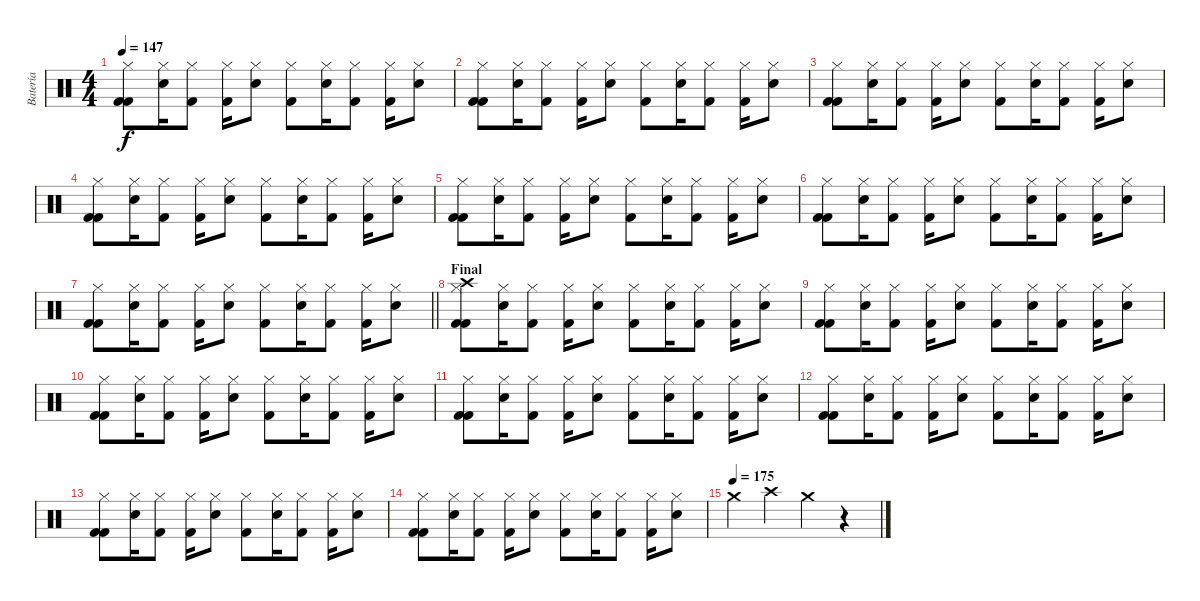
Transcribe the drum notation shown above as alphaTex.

\track ("Batería" "Batería") {instrument percussion}
\staff {score}
\articulation defaults
\ts (4 4)
\tempo 147
\clef neutral
\ks c
("Hi-Hat (closed)" "Kick (hit) 2" "Kick (hit) 2").8{dy f} ("Hi-Hat (closed)" "Electric Snare (hit)").16 ("Hi-Hat (closed)" "Kick (hit) 2").8 ("Hi-Hat (closed)" "Kick (hit) 2").16 ("Hi-Hat (closed)" "Electric Snare (hit)").8 ("Hi-Hat (closed)" "Kick (hit) 2").8 ("Hi-Hat (closed)" "Electric Snare (hit)").16 ("Hi-Hat (closed)" "Kick (hit) 2").8 ("Hi-Hat (closed)" "Kick (hit) 2").16 ("Hi-Hat (closed)" "Electric Snare (hit)").8 |
("Hi-Hat (closed)" "Kick (hit) 2" "Kick (hit) 2").8 ("Hi-Hat (closed)" "Electric Snare (hit)").16 ("Hi-Hat (closed)" "Kick (hit) 2").8 ("Hi-Hat (closed)" "Kick (hit) 2").16 ("Hi-Hat (closed)" "Electric Snare (hit)").8 ("Hi-Hat (closed)" "Kick (hit) 2").8 ("Hi-Hat (closed)" "Electric Snare (hit)").16 ("Hi-Hat (closed)" "Kick (hit) 2").8 ("Hi-Hat (closed)" "Kick (hit) 2").16 ("Hi-Hat (closed)" "Electric Snare (hit)").8 |
("Hi-Hat (closed)" "Kick (hit) 2" "Kick (hit) 2").8 ("Hi-Hat (closed)" "Electric Snare (hit)").16 ("Hi-Hat (closed)" "Kick (hit) 2").8 ("Hi-Hat (closed)" "Kick (hit) 2").16 ("Hi-Hat (closed)" "Electric Snare (hit)").8 ("Hi-Hat (closed)" "Kick (hit) 2").8 ("Hi-Hat (closed)" "Electric Snare (hit)").16 ("Hi-Hat (closed)" "Kick (hit) 2").8 ("Hi-Hat (closed)" "Kick (hit) 2").16 ("Hi-Hat (closed)" "Electric Snare (hit)").8 |
("Hi-Hat (closed)" "Kick (hit) 2" "Kick (hit) 2").8 ("Hi-Hat (closed)" "Electric Snare (hit)").16 ("Hi-Hat (closed)" "Kick (hit) 2").8 ("Hi-Hat (closed)" "Kick (hit) 2").16 ("Hi-Hat (closed)" "Electric Snare (hit)").8 ("Hi-Hat (closed)" "Kick (hit) 2").8 ("Hi-Hat (closed)" "Electric Snare (hit)").16 ("Hi-Hat (closed)" "Kick (hit) 2").8 ("Hi-Hat (closed)" "Kick (hit) 2").16 ("Hi-Hat (closed)" "Electric Snare (hit)").8 |
("Hi-Hat (closed)" "Kick (hit) 2" "Kick (hit) 2").8 ("Hi-Hat (closed)" "Electric Snare (hit)").16 ("Hi-Hat (closed)" "Kick (hit) 2").8 ("Hi-Hat (closed)" "Kick (hit) 2").16 ("Hi-Hat (closed)" "Electric Snare (hit)").8 ("Hi-Hat (closed)" "Kick (hit) 2").8 ("Hi-Hat (closed)" "Electric Snare (hit)").16 ("Hi-Hat (closed)" "Kick (hit) 2").8 ("Hi-Hat (closed)" "Kick (hit) 2").16 ("Hi-Hat (closed)" "Electric Snare (hit)").8 |
("Hi-Hat (closed)" "Kick (hit) 2" "Kick (hit) 2").8 ("Hi-Hat (closed)" "Electric Snare (hit)").16 ("Hi-Hat (closed)" "Kick (hit) 2").8 ("Hi-Hat (closed)" "Kick (hit) 2").16 ("Hi-Hat (closed)" "Electric Snare (hit)").8 ("Hi-Hat (closed)" "Kick (hit) 2").8 ("Hi-Hat (closed)" "Electric Snare (hit)").16 ("Hi-Hat (closed)" "Kick (hit) 2").8 ("Hi-Hat (closed)" "Kick (hit) 2").16 ("Hi-Hat (closed)" "Electric Snare (hit)").8 |
\barLineRight lightlight
("Hi-Hat (closed)" "Kick (hit) 2" "Kick (hit) 2").8 ("Hi-Hat (closed)" "Electric Snare (hit)").16 ("Hi-Hat (closed)" "Kick (hit) 2").8 ("Hi-Hat (closed)" "Kick (hit) 2").16 ("Hi-Hat (closed)" "Electric Snare (hit)").8 ("Hi-Hat (closed)" "Kick (hit) 2").8 ("Hi-Hat (closed)" "Electric Snare (hit)").16 ("Hi-Hat (closed)" "Kick (hit) 2").8 ("Hi-Hat (closed)" "Kick (hit) 2").16 ("Hi-Hat (closed)" "Electric Snare (hit)").8 |
\section ("" "Final")
("Crash high (hit)" "Hi-Hat (closed)" "Kick (hit) 2" "Kick (hit) 2").8 ("Hi-Hat (closed)" "Electric Snare (hit)").16 ("Hi-Hat (closed)" "Kick (hit) 2").8 ("Hi-Hat (closed)" "Kick (hit) 2").16 ("Hi-Hat (closed)" "Electric Snare (hit)").8 ("Hi-Hat (closed)" "Kick (hit) 2").8 ("Hi-Hat (closed)" "Electric Snare (hit)").16 ("Hi-Hat (closed)" "Kick (hit) 2").8 ("Hi-Hat (closed)" "Kick (hit) 2").16 ("Hi-Hat (closed)" "Electric Snare (hit)").8 |
("Hi-Hat (closed)" "Kick (hit) 2" "Kick (hit) 2").8 ("Hi-Hat (closed)" "Electric Snare (hit)").16 ("Hi-Hat (closed)" "Kick (hit) 2").8 ("Hi-Hat (closed)" "Kick (hit) 2").16 ("Hi-Hat (closed)" "Electric Snare (hit)").8 ("Hi-Hat (closed)" "Kick (hit) 2").8 ("Hi-Hat (closed)" "Electric Snare (hit)").16 ("Hi-Hat (closed)" "Kick (hit) 2").8 ("Hi-Hat (closed)" "Kick (hit) 2").16 ("Hi-Hat (closed)" "Electric Snare (hit)").8 |
("Hi-Hat (closed)" "Kick (hit) 2" "Kick (hit) 2").8 ("Hi-Hat (closed)" "Electric Snare (hit)").16 ("Hi-Hat (closed)" "Kick (hit) 2").8 ("Hi-Hat (closed)" "Kick (hit) 2").16 ("Hi-Hat (closed)" "Electric Snare (hit)").8 ("Hi-Hat (closed)" "Kick (hit) 2").8 ("Hi-Hat (closed)" "Electric Snare (hit)").16 ("Hi-Hat (closed)" "Kick (hit) 2").8 ("Hi-Hat (closed)" "Kick (hit) 2").16 ("Hi-Hat (closed)" "Electric Snare (hit)").8 |
("Hi-Hat (closed)" "Kick (hit) 2" "Kick (hit) 2").8 ("Hi-Hat (closed)" "Electric Snare (hit)").16 ("Hi-Hat (closed)" "Kick (hit) 2").8 ("Hi-Hat (closed)" "Kick (hit) 2").16 ("Hi-Hat (closed)" "Electric Snare (hit)").8 ("Hi-Hat (closed)" "Kick (hit) 2").8 ("Hi-Hat (closed)" "Electric Snare (hit)").16 ("Hi-Hat (closed)" "Kick (hit) 2").8 ("Hi-Hat (closed)" "Kick (hit) 2").16 ("Hi-Hat (closed)" "Electric Snare (hit)").8 |
("Hi-Hat (closed)" "Kick (hit) 2" "Kick (hit) 2").8 ("Hi-Hat (closed)" "Electric Snare (hit)").16 ("Hi-Hat (closed)" "Kick (hit) 2").8 ("Hi-Hat (closed)" "Kick (hit) 2").16 ("Hi-Hat (closed)" "Electric Snare (hit)").8 ("Hi-Hat (closed)" "Kick (hit) 2").8 ("Hi-Hat (closed)" "Electric Snare (hit)").16 ("Hi-Hat (closed)" "Kick (hit) 2").8 ("Hi-Hat (closed)" "Kick (hit) 2").16 ("Hi-Hat (closed)" "Electric Snare (hit)").8 |
("Hi-Hat (closed)" "Kick (hit) 2" "Kick (hit) 2").8 ("Hi-Hat (closed)" "Electric Snare (hit)").16 ("Hi-Hat (closed)" "Kick (hit) 2").8 ("Hi-Hat (closed)" "Kick (hit) 2").16 ("Hi-Hat (closed)" "Electric Snare (hit)").8 ("Hi-Hat (closed)" "Kick (hit) 2").8 ("Hi-Hat (closed)" "Electric Snare (hit)").16 ("Hi-Hat (closed)" "Kick (hit) 2").8 ("Hi-Hat (closed)" "Kick (hit) 2").16 ("Hi-Hat (closed)" "Electric Snare (hit)").8 |
("Hi-Hat (closed)" "Kick (hit) 2" "Kick (hit) 2").8 ("Hi-Hat (closed)" "Electric Snare (hit)").16 ("Hi-Hat (closed)" "Kick (hit) 2").8 ("Hi-Hat (closed)" "Kick (hit) 2").16 ("Hi-Hat (closed)" "Electric Snare (hit)").8 ("Hi-Hat (closed)" "Kick (hit) 2").8 ("Hi-Hat (closed)" "Electric Snare (hit)").16 ("Hi-Hat (closed)" "Kick (hit) 2").8 ("Hi-Hat (closed)" "Kick (hit) 2").16 ("Hi-Hat (closed)" "Electric Snare (hit)").8 |
\tempo (175)
"Crash medium (hit)".4 "Crash high (hit)".4 "Crash medium (hit)".4 r.4
